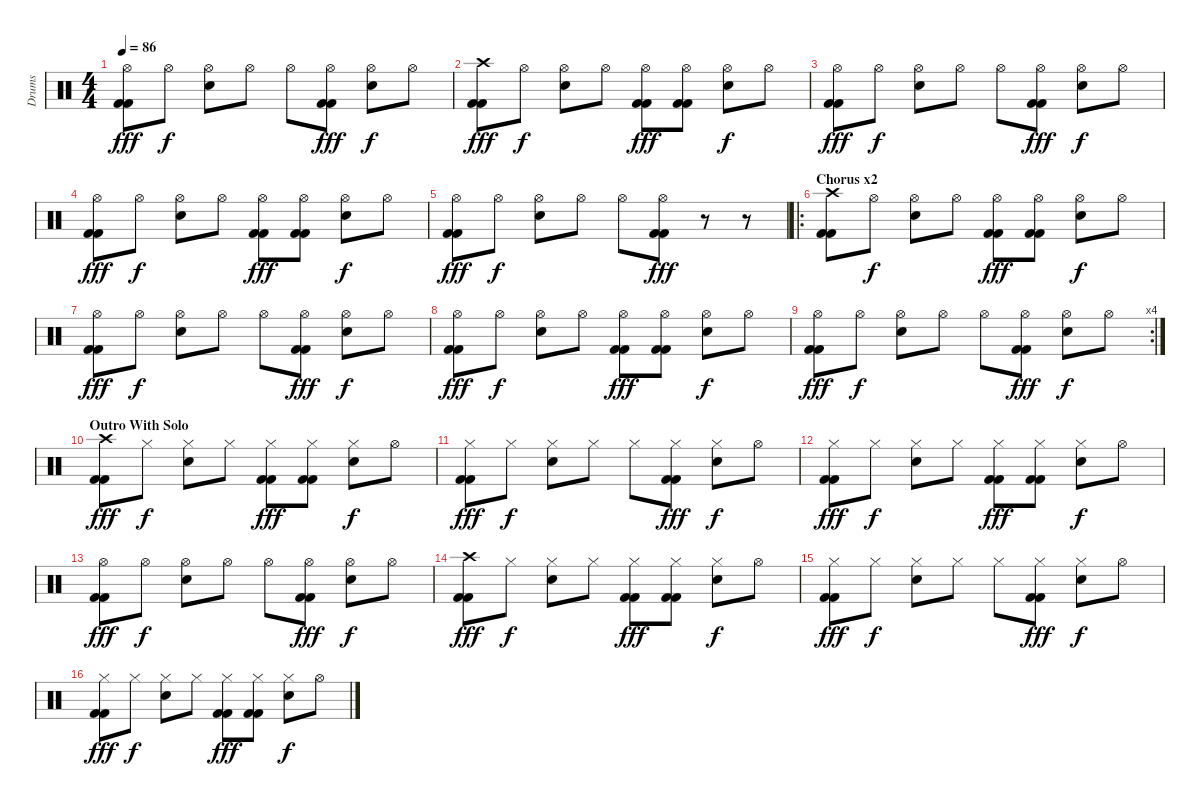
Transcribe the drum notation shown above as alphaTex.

\track ("Drums" "Drums") {instrument percussion}
\staff {score}
\articulation defaults
\ts (4 4)
\tempo 86
\clef neutral
\ks c
("Hi-Hat (open)" "Kick (hit) 2" "Kick (hit) 2").8{dy fff} "Hi-Hat (open)".8{dy f} ("Hi-Hat (open)" "Electric Snare (hit)").8 "Hi-Hat (open)".8 "Hi-Hat (open)".8 ("Hi-Hat (open)" "Kick (hit) 2" "Kick (hit) 2").8{dy fff} ("Hi-Hat (open)" "Electric Snare (hit)").8{dy f} "Hi-Hat (open)".8 |
("Crash high (hit)" "Kick (hit) 2" "Kick (hit) 2").8{dy fff} "Hi-Hat (open)".8{dy f} ("Hi-Hat (open)" "Electric Snare (hit)").8 "Hi-Hat (open)".8 ("Hi-Hat (open)" "Kick (hit) 2" "Kick (hit) 2").8{dy fff} ("Hi-Hat (open)" "Kick (hit) 2" "Kick (hit) 2").8 ("Hi-Hat (open)" "Electric Snare (hit)").8{dy f} "Hi-Hat (open)".8 |
("Hi-Hat (open)" "Kick (hit) 2" "Kick (hit) 2").8{dy fff} "Hi-Hat (open)".8{dy f} ("Hi-Hat (open)" "Electric Snare (hit)").8 "Hi-Hat (open)".8 "Hi-Hat (open)".8 ("Hi-Hat (open)" "Kick (hit) 2" "Kick (hit) 2").8{dy fff} ("Hi-Hat (open)" "Electric Snare (hit)").8{dy f} "Hi-Hat (open)".8 |
("Hi-Hat (open)" "Kick (hit) 2" "Kick (hit) 2").8{dy fff} "Hi-Hat (open)".8{dy f} ("Hi-Hat (open)" "Electric Snare (hit)").8 "Hi-Hat (open)".8 ("Hi-Hat (open)" "Kick (hit) 2" "Kick (hit) 2").8{dy fff} ("Hi-Hat (open)" "Kick (hit) 2" "Kick (hit) 2").8 ("Hi-Hat (open)" "Electric Snare (hit)").8{dy f} "Hi-Hat (open)".8 |
("Hi-Hat (open)" "Kick (hit) 2" "Kick (hit) 2").8{dy fff} "Hi-Hat (open)".8{dy f} ("Hi-Hat (open)" "Electric Snare (hit)").8 "Hi-Hat (open)".8 "Hi-Hat (open)".8 ("Hi-Hat (open)" "Kick (hit) 2" "Kick (hit) 2").8{dy fff} r.8 r.8 |
\ro
\section ("" "Chorus x2")
("Crash high (hit)" "Kick (hit) 2" "Kick (hit) 2").8 "Hi-Hat (open)".8{dy f} ("Hi-Hat (open)" "Electric Snare (hit)").8 "Hi-Hat (open)".8 ("Hi-Hat (open)" "Kick (hit) 2" "Kick (hit) 2").8{dy fff} ("Hi-Hat (open)" "Kick (hit) 2" "Kick (hit) 2").8 ("Hi-Hat (open)" "Electric Snare (hit)").8{dy f} "Hi-Hat (open)".8 |
("Hi-Hat (open)" "Kick (hit) 2" "Kick (hit) 2").8{dy fff} "Hi-Hat (open)".8{dy f} ("Hi-Hat (open)" "Electric Snare (hit)").8 "Hi-Hat (open)".8 "Hi-Hat (open)".8 ("Hi-Hat (open)" "Kick (hit) 2" "Kick (hit) 2").8{dy fff} ("Hi-Hat (open)" "Electric Snare (hit)").8{dy f} "Hi-Hat (open)".8 |
("Hi-Hat (open)" "Kick (hit) 2" "Kick (hit) 2").8{dy fff} "Hi-Hat (open)".8{dy f} ("Hi-Hat (open)" "Electric Snare (hit)").8 "Hi-Hat (open)".8 ("Hi-Hat (open)" "Kick (hit) 2" "Kick (hit) 2").8{dy fff} ("Hi-Hat (open)" "Kick (hit) 2" "Kick (hit) 2").8 ("Hi-Hat (open)" "Electric Snare (hit)").8{dy f} "Hi-Hat (open)".8 |
\rc 4
("Hi-Hat (open)" "Kick (hit) 2" "Kick (hit) 2").8{dy fff} "Hi-Hat (open)".8{dy f} ("Hi-Hat (open)" "Electric Snare (hit)").8 "Hi-Hat (open)".8 "Hi-Hat (open)".8 ("Hi-Hat (open)" "Kick (hit) 2" "Kick (hit) 2").8{dy fff} ("Hi-Hat (open)" "Electric Snare (hit)").8{dy f} "Hi-Hat (open)".8 |
\section ("" "Outro With Solo")
("Crash high (hit)" "Kick (hit) 2" "Kick (hit) 2").8{dy fff} "Hi-Hat (closed)".8{dy f} ("Hi-Hat (closed)" "Electric Snare (hit)").8 "Hi-Hat (closed)".8 ("Hi-Hat (closed)" "Kick (hit) 2" "Kick (hit) 2").8{dy fff} ("Hi-Hat (closed)" "Kick (hit) 2" "Kick (hit) 2").8 ("Hi-Hat (closed)" "Electric Snare (hit)").8{dy f} "Hi-Hat (open)".8 |
("Hi-Hat (closed)" "Kick (hit) 2" "Kick (hit) 2").8{dy fff} "Hi-Hat (closed)".8{dy f} ("Hi-Hat (closed)" "Electric Snare (hit)").8 "Hi-Hat (closed)".8 "Hi-Hat (closed)".8 ("Hi-Hat (closed)" "Kick (hit) 2" "Kick (hit) 2").8{dy fff} ("Hi-Hat (closed)" "Electric Snare (hit)").8{dy f} "Hi-Hat (open)".8 |
("Hi-Hat (closed)" "Kick (hit) 2" "Kick (hit) 2").8{dy fff} "Hi-Hat (closed)".8{dy f} ("Hi-Hat (closed)" "Electric Snare (hit)").8 "Hi-Hat (closed)".8 ("Hi-Hat (closed)" "Kick (hit) 2" "Kick (hit) 2").8{dy fff} ("Hi-Hat (closed)" "Kick (hit) 2" "Kick (hit) 2").8 ("Hi-Hat (closed)" "Electric Snare (hit)").8{dy f} "Hi-Hat (open)".8 |
("Hi-Hat (open)" "Kick (hit) 2" "Kick (hit) 2").8{dy fff} "Hi-Hat (open)".8{dy f} ("Hi-Hat (open)" "Electric Snare (hit)").8 "Hi-Hat (open)".8 "Hi-Hat (open)".8 ("Hi-Hat (open)" "Kick (hit) 2" "Kick (hit) 2").8{dy fff} ("Hi-Hat (open)" "Electric Snare (hit)").8{dy f} "Hi-Hat (open)".8 |
("Crash high (hit)" "Kick (hit) 2" "Kick (hit) 2").8{dy fff} "Hi-Hat (closed)".8{dy f} ("Hi-Hat (closed)" "Electric Snare (hit)").8 "Hi-Hat (closed)".8 ("Hi-Hat (closed)" "Kick (hit) 2" "Kick (hit) 2").8{dy fff} ("Hi-Hat (closed)" "Kick (hit) 2" "Kick (hit) 2").8 ("Hi-Hat (closed)" "Electric Snare (hit)").8{dy f} "Hi-Hat (open)".8 |
("Hi-Hat (closed)" "Kick (hit) 2" "Kick (hit) 2").8{dy fff} "Hi-Hat (closed)".8{dy f} ("Hi-Hat (closed)" "Electric Snare (hit)").8 "Hi-Hat (closed)".8 "Hi-Hat (closed)".8 ("Hi-Hat (closed)" "Kick (hit) 2" "Kick (hit) 2").8{dy fff} ("Hi-Hat (closed)" "Electric Snare (hit)").8{dy f} "Hi-Hat (open)".8 |
("Hi-Hat (closed)" "Kick (hit) 2" "Kick (hit) 2").8{dy fff} "Hi-Hat (closed)".8{dy f} ("Hi-Hat (closed)" "Electric Snare (hit)").8 "Hi-Hat (closed)".8 ("Hi-Hat (closed)" "Kick (hit) 2" "Kick (hit) 2").8{dy fff} ("Hi-Hat (closed)" "Kick (hit) 2" "Kick (hit) 2").8 ("Hi-Hat (closed)" "Electric Snare (hit)").8{dy f} "Hi-Hat (open)".8
